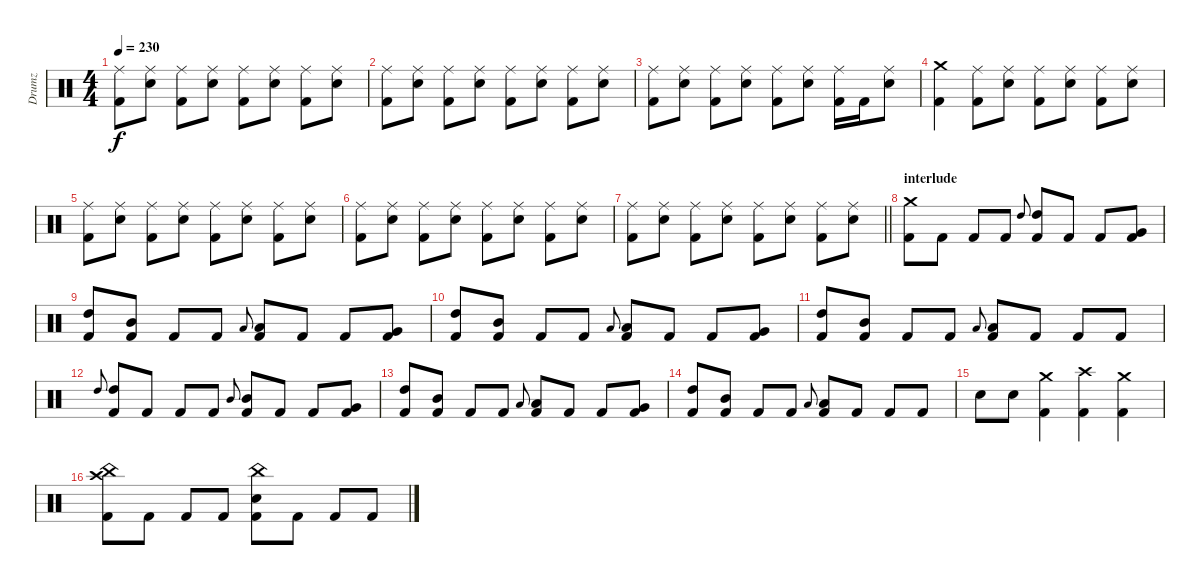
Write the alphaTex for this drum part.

\track ("Drumz" "Drumz") {instrument percussion}
\staff {score}
\articulation defaults
\ts (4 4)
\tempo 230
\clef neutral
\ks c
("Ride (middle)" "Kick (hit) 2").8{dy f} ("Ride (middle)" "Electric Snare (hit)").8 ("Ride (middle)" "Kick (hit) 2").8 ("Ride (middle)" "Electric Snare (hit)").8 ("Ride (middle)" "Kick (hit) 2").8 ("Ride (middle)" "Electric Snare (hit)").8 ("Ride (middle)" "Kick (hit) 2").8 ("Ride (middle)" "Electric Snare (hit)").8 |
("Ride (middle)" "Kick (hit) 2").8 ("Ride (middle)" "Electric Snare (hit)").8 ("Ride (middle)" "Kick (hit) 2").8 ("Ride (middle)" "Electric Snare (hit)").8 ("Ride (middle)" "Kick (hit) 2").8 ("Ride (middle)" "Electric Snare (hit)").8 ("Ride (middle)" "Kick (hit) 2").8 ("Ride (middle)" "Electric Snare (hit)").8 |
("Ride (middle)" "Kick (hit) 2").8 ("Ride (middle)" "Electric Snare (hit)").8 ("Ride (middle)" "Kick (hit) 2").8 ("Ride (middle)" "Electric Snare (hit)").8 ("Ride (middle)" "Kick (hit) 2").8 ("Ride (middle)" "Electric Snare (hit)").8 ("Ride (middle)" "Kick (hit) 2").16 "Kick (hit) 2".16 ("Ride (middle)" "Electric Snare (hit)").8 |
("Crash medium (hit)" "Kick (hit) 2").4 ("Ride (middle)" "Kick (hit) 2").8 ("Ride (middle)" "Electric Snare (hit)").8 ("Ride (middle)" "Kick (hit) 2").8 ("Ride (middle)" "Electric Snare (hit)").8 ("Ride (middle)" "Kick (hit) 2").8 ("Ride (middle)" "Electric Snare (hit)").8 |
("Ride (middle)" "Kick (hit) 2").8 ("Ride (middle)" "Electric Snare (hit)").8 ("Ride (middle)" "Kick (hit) 2").8 ("Ride (middle)" "Electric Snare (hit)").8 ("Ride (middle)" "Kick (hit) 2").8 ("Ride (middle)" "Electric Snare (hit)").8 ("Ride (middle)" "Kick (hit) 2").8 ("Ride (middle)" "Electric Snare (hit)").8 |
("Ride (middle)" "Kick (hit) 2").8 ("Ride (middle)" "Electric Snare (hit)").8 ("Ride (middle)" "Kick (hit) 2").8 ("Ride (middle)" "Electric Snare (hit)").8 ("Ride (middle)" "Kick (hit) 2").8 ("Ride (middle)" "Electric Snare (hit)").8 ("Ride (middle)" "Kick (hit) 2").8 ("Ride (middle)" "Electric Snare (hit)").8 |
\barLineRight lightlight
("Ride (middle)" "Kick (hit) 2").8 ("Ride (middle)" "Electric Snare (hit)").8 ("Ride (middle)" "Kick (hit) 2").8 ("Ride (middle)" "Electric Snare (hit)").8 ("Ride (middle)" "Kick (hit) 2").8 ("Ride (middle)" "Electric Snare (hit)").8 ("Ride (middle)" "Kick (hit) 2").8 ("Ride (middle)" "Electric Snare (hit)").8 |
\section ("" "interlude")
("Crash medium (hit)" "Kick (hit) 2").8 "Kick (hit) 2".8 "Kick (hit) 2".8 "Kick (hit) 2".8 "High Tom (hit)".8{gr onbeat} ("High Tom (hit)" "Kick (hit) 2").8 "Kick (hit) 2".8 "Kick (hit) 2".8 ("Very Low Tom (hit)" "Kick (hit) 2").8 |
("High Tom (hit)" "Kick (hit) 2").8 ("Mid Tom (hit)" "Kick (hit) 2").8 "Kick (hit) 2".8 "Kick (hit) 2".8 "Low Tom (hit)".8{gr onbeat} ("Low Tom (hit)" "Kick (hit) 2").8 "Kick (hit) 2".8 "Kick (hit) 2".8 ("Very Low Tom (hit)" "Kick (hit) 2").8 |
("High Tom (hit)" "Kick (hit) 2").8 ("Mid Tom (hit)" "Kick (hit) 2").8 "Kick (hit) 2".8 "Kick (hit) 2".8 "Low Tom (hit)".8{gr onbeat} ("Low Tom (hit)" "Kick (hit) 2").8 "Kick (hit) 2".8 "Kick (hit) 2".8 ("Very Low Tom (hit)" "Kick (hit) 2").8 |
("High Tom (hit)" "Kick (hit) 2").8 ("Mid Tom (hit)" "Kick (hit) 2").8 "Kick (hit) 2".8 "Kick (hit) 2".8 "Low Tom (hit)".8{gr onbeat} ("Low Tom (hit)" "Kick (hit) 2").8 "Kick (hit) 2".8 "Kick (hit) 2".8 "Kick (hit) 2".8 |
"High Tom (hit)".8{gr onbeat} ("High Tom (hit)" "Kick (hit) 2").8 "Kick (hit) 2".8 "Kick (hit) 2".8 "Kick (hit) 2".8 "Mid Tom (hit)".8{gr onbeat} ("Mid Tom (hit)" "Kick (hit) 2").8 "Kick (hit) 2".8 "Kick (hit) 2".8 ("Very Low Tom (hit)" "Kick (hit) 2").8 |
("High Tom (hit)" "Kick (hit) 2").8 ("Mid Tom (hit)" "Kick (hit) 2").8 "Kick (hit) 2".8 "Kick (hit) 2".8 "Low Tom (hit)".8{gr onbeat} ("Low Tom (hit)" "Kick (hit) 2").8 "Kick (hit) 2".8 "Kick (hit) 2".8 ("Very Low Tom (hit)" "Kick (hit) 2").8 |
("High Tom (hit)" "Kick (hit) 2").8 ("Mid Tom (hit)" "Kick (hit) 2").8 "Kick (hit) 2".8 "Kick (hit) 2".8 "Low Tom (hit)".8{gr onbeat} ("Low Tom (hit)" "Kick (hit) 2").8 "Kick (hit) 2".8 "Kick (hit) 2".8 "Kick (hit) 2".8 |
"Electric Snare (hit)".8 "Electric Snare (hit)".8 ("Crash medium (hit)" "Kick (hit) 2").4 ("Crash high (hit)" "Kick (hit) 2").4 ("Crash medium (hit)" "Kick (hit) 2").4 |
("China (hit)" "Crash high (hit)" "Kick (hit) 2").8 "Kick (hit) 2".8 "Kick (hit) 2".8 "Kick (hit) 2".8 ("China (hit)" "Electric Snare (hit)" "Kick (hit) 2").8 "Kick (hit) 2".8 "Kick (hit) 2".8 "Kick (hit) 2".8
